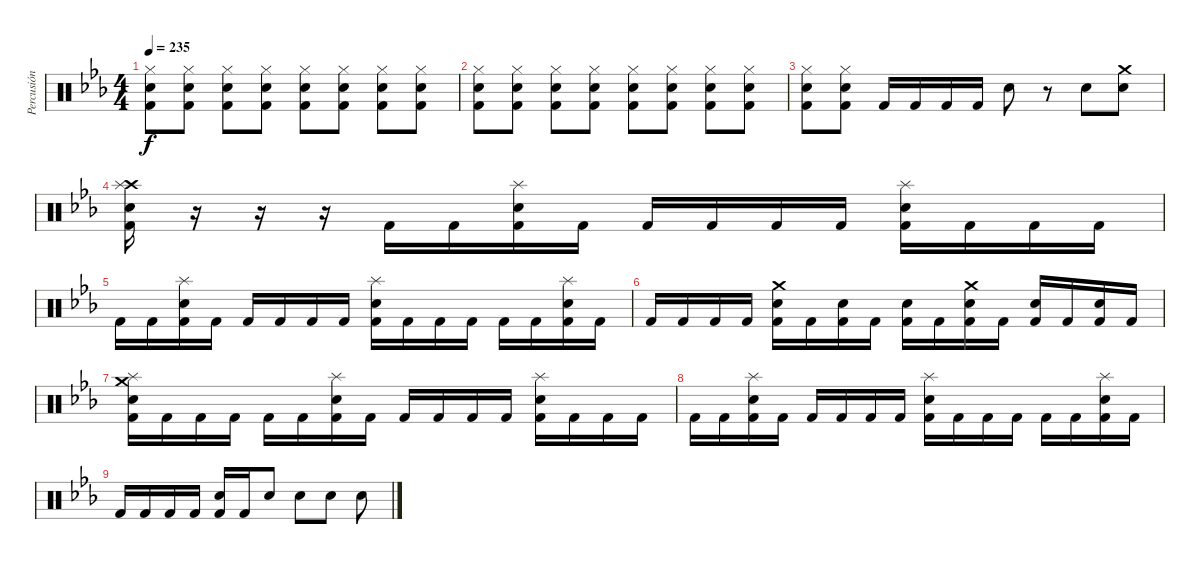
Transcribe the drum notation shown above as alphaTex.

\track ("Percusión" "Percusión") {instrument percussion}
\staff {score}
\articulation defaults
\ts (4 4)
\tempo 235
\clef neutral
\ks eb
("Hi-Hat (closed)" "Electric Snare (hit)" "Kick (hit) 2").8{dy f} ("Hi-Hat (closed)" "Electric Snare (hit)" "Kick (hit) 2").8 ("Hi-Hat (closed)" "Electric Snare (hit)" "Kick (hit) 2").8 ("Hi-Hat (closed)" "Electric Snare (hit)" "Kick (hit) 2").8 ("Hi-Hat (closed)" "Electric Snare (hit)" "Kick (hit) 2").8 ("Hi-Hat (closed)" "Electric Snare (hit)" "Kick (hit) 2").8 ("Hi-Hat (closed)" "Electric Snare (hit)" "Kick (hit) 2").8 ("Hi-Hat (closed)" "Electric Snare (hit)" "Kick (hit) 2").8 |
("Hi-Hat (closed)" "Electric Snare (hit)" "Kick (hit) 2").8 ("Hi-Hat (closed)" "Electric Snare (hit)" "Kick (hit) 2").8 ("Hi-Hat (closed)" "Electric Snare (hit)" "Kick (hit) 2").8 ("Hi-Hat (closed)" "Electric Snare (hit)" "Kick (hit) 2").8 ("Hi-Hat (closed)" "Electric Snare (hit)" "Kick (hit) 2").8 ("Hi-Hat (closed)" "Electric Snare (hit)" "Kick (hit) 2").8 ("Hi-Hat (closed)" "Electric Snare (hit)" "Kick (hit) 2").8 ("Hi-Hat (closed)" "Electric Snare (hit)" "Kick (hit) 2").8 |
("Hi-Hat (closed)" "Electric Snare (hit)" "Kick (hit) 2").8 ("Hi-Hat (closed)" "Electric Snare (hit)" "Kick (hit) 2").8 "Kick (hit) 2".16 "Kick (hit) 2".16 "Kick (hit) 2".16 "Kick (hit) 2".16 "Electric Snare (hit)".8 r.8 "Electric Snare (hit)".8 ("Crash medium (hit)" "Electric Snare (hit)").8 |
("Crash high (hit)" "Splash (hit)" "Electric Snare (hit)" "Kick (hit) 2").16 r.16 r.16 r.16 "Kick (hit) 2".16 "Kick (hit) 2".16 ("Splash (hit)" "Electric Snare (hit)" "Kick (hit) 2").16 "Kick (hit) 2".16 "Kick (hit) 2".16 "Kick (hit) 2".16 "Kick (hit) 2".16 "Kick (hit) 2".16 ("Splash (hit)" "Electric Snare (hit)" "Kick (hit) 2").16 "Kick (hit) 2".16 "Kick (hit) 2".16 "Kick (hit) 2".16 |
"Kick (hit) 2".16 "Kick (hit) 2".16 ("Splash (hit)" "Electric Snare (hit)" "Kick (hit) 2").16 "Kick (hit) 2".16 "Kick (hit) 2".16 "Kick (hit) 2".16 "Kick (hit) 2".16 "Kick (hit) 2".16 ("Splash (hit)" "Electric Snare (hit)" "Kick (hit) 2").16 "Kick (hit) 2".16 "Kick (hit) 2".16 "Kick (hit) 2".16 "Kick (hit) 2".16 "Kick (hit) 2".16 ("Splash (hit)" "Electric Snare (hit)" "Kick (hit) 2").16 "Kick (hit) 2".16 |
"Kick (hit) 2".16 "Kick (hit) 2".16 "Kick (hit) 2".16 "Kick (hit) 2".16 ("Crash medium (hit)" "Electric Snare (hit)" "Kick (hit) 2").16 "Kick (hit) 2".16 ("Electric Snare (hit)" "Kick (hit) 2").16 "Kick (hit) 2".16 ("Electric Snare (hit)" "Kick (hit) 2").16 "Kick (hit) 2".16 ("Crash medium (hit)" "Electric Snare (hit)" "Kick (hit) 2").16 "Kick (hit) 2".16 ("Electric Snare (hit)" "Kick (hit) 2").16 "Kick (hit) 2".16 ("Electric Snare (hit)" "Kick (hit) 2").16 "Kick (hit) 2".16 |
("Crash medium (hit)" "Splash (hit)" "Electric Snare (hit)" "Kick (hit) 2").16 "Kick (hit) 2".16 "Kick (hit) 2".16 "Kick (hit) 2".16 "Kick (hit) 2".16 "Kick (hit) 2".16 ("Splash (hit)" "Electric Snare (hit)" "Kick (hit) 2").16 "Kick (hit) 2".16 "Kick (hit) 2".16 "Kick (hit) 2".16 "Kick (hit) 2".16 "Kick (hit) 2".16 ("Splash (hit)" "Electric Snare (hit)" "Kick (hit) 2").16 "Kick (hit) 2".16 "Kick (hit) 2".16 "Kick (hit) 2".16 |
"Kick (hit) 2".16 "Kick (hit) 2".16 ("Splash (hit)" "Electric Snare (hit)" "Kick (hit) 2").16 "Kick (hit) 2".16 "Kick (hit) 2".16 "Kick (hit) 2".16 "Kick (hit) 2".16 "Kick (hit) 2".16 ("Splash (hit)" "Electric Snare (hit)" "Kick (hit) 2").16 "Kick (hit) 2".16 "Kick (hit) 2".16 "Kick (hit) 2".16 "Kick (hit) 2".16 "Kick (hit) 2".16 ("Splash (hit)" "Electric Snare (hit)" "Kick (hit) 2").16 "Kick (hit) 2".16 |
"Kick (hit) 2".16 "Kick (hit) 2".16 "Kick (hit) 2".16 "Kick (hit) 2".16 ("Electric Snare (hit)" "Kick (hit) 2").16 "Kick (hit) 2".16 "Electric Snare (hit)".8 "Electric Snare (hit)".8 "Electric Snare (hit)".8 "Electric Snare (hit)".8
